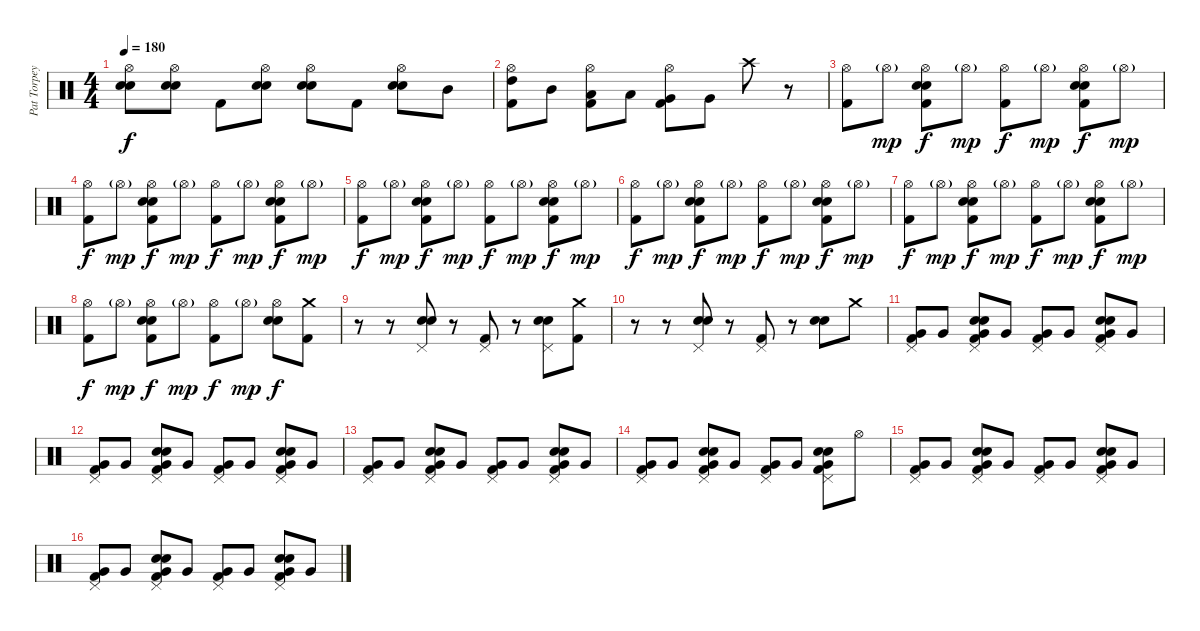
\track ("Pat Torpey" "Pat Torpey") {instrument percussion}
\staff {score}
\articulation defaults
\ts (4 4)
\tempo 180
\clef neutral
\ks c
("Snare (hit) 2" "Electric Snare (hit)" "Hi-Hat (open)").8{dy f} ("Snare (hit) 2" "Electric Snare (hit)" "Hi-Hat (open)").8 "Kick (hit) 2".8 ("Snare (hit) 2" "Electric Snare (hit)" "Hi-Hat (open)").8 ("Snare (hit) 2" "Electric Snare (hit)" "Hi-Hat (open)").8 "Kick (hit) 2".8 ("Snare (hit) 2" "Electric Snare (hit)" "Hi-Hat (open)").8 "Mid Tom (hit)".8 |
("High Tom (hit)" "Hi-Hat (open)" "Kick (hit) 2").8 "Mid Tom (hit)".8 ("Hi-Hat (open)" "Low Tom (hit)" "Kick (hit) 2").8 "Low Tom (hit)".8 ("Hi-Hat (open)" "Very Low Tom (hit)" "Kick (hit) 2").8 "Very Low Tom (hit)".8 "Crash high (hit)".8 r.8 |
("Hi-Hat (open)" "Kick (hit) 2").8 "Hi-Hat (open)"{g}.8{dy mp} ("Hi-Hat (open)" "Snare (hit) 2" "Electric Snare (hit)" "Kick (hit) 2").8{dy f} "Hi-Hat (open)"{g}.8{dy mp} ("Hi-Hat (open)" "Kick (hit) 2").8{dy f} "Hi-Hat (open)"{g}.8{dy mp} ("Hi-Hat (open)" "Snare (hit) 2" "Electric Snare (hit)" "Kick (hit) 2").8{dy f} "Hi-Hat (open)"{g}.8{dy mp} |
("Hi-Hat (open)" "Kick (hit) 2").8{dy f} "Hi-Hat (open)"{g}.8{dy mp} ("Hi-Hat (open)" "Snare (hit) 2" "Electric Snare (hit)" "Kick (hit) 2").8{dy f} "Hi-Hat (open)"{g}.8{dy mp} ("Hi-Hat (open)" "Kick (hit) 2").8{dy f} "Hi-Hat (open)"{g}.8{dy mp} ("Hi-Hat (open)" "Snare (hit) 2" "Electric Snare (hit)" "Kick (hit) 2").8{dy f} "Hi-Hat (open)"{g}.8{dy mp} |
("Hi-Hat (open)" "Kick (hit) 2").8{dy f} "Hi-Hat (open)"{g}.8{dy mp} ("Hi-Hat (open)" "Snare (hit) 2" "Electric Snare (hit)" "Kick (hit) 2").8{dy f} "Hi-Hat (open)"{g}.8{dy mp} ("Hi-Hat (open)" "Kick (hit) 2").8{dy f} "Hi-Hat (open)"{g}.8{dy mp} ("Hi-Hat (open)" "Snare (hit) 2" "Electric Snare (hit)" "Kick (hit) 2").8{dy f} "Hi-Hat (open)"{g}.8{dy mp} |
("Hi-Hat (open)" "Kick (hit) 2").8{dy f} "Hi-Hat (open)"{g}.8{dy mp} ("Hi-Hat (open)" "Snare (hit) 2" "Electric Snare (hit)" "Kick (hit) 2").8{dy f} "Hi-Hat (open)"{g}.8{dy mp} ("Hi-Hat (open)" "Kick (hit) 2").8{dy f} "Hi-Hat (open)"{g}.8{dy mp} ("Hi-Hat (open)" "Snare (hit) 2" "Electric Snare (hit)" "Kick (hit) 2").8{dy f} "Hi-Hat (open)"{g}.8{dy mp} |
("Hi-Hat (open)" "Kick (hit) 2").8{dy f} "Hi-Hat (open)"{g}.8{dy mp} ("Hi-Hat (open)" "Snare (hit) 2" "Electric Snare (hit)" "Kick (hit) 2").8{dy f} "Hi-Hat (open)"{g}.8{dy mp} ("Hi-Hat (open)" "Kick (hit) 2").8{dy f} "Hi-Hat (open)"{g}.8{dy mp} ("Hi-Hat (open)" "Snare (hit) 2" "Electric Snare (hit)" "Kick (hit) 2").8{dy f} "Hi-Hat (open)"{g}.8{dy mp} |
("Hi-Hat (open)" "Kick (hit) 2").8{dy f} "Hi-Hat (open)"{g}.8{dy mp} ("Hi-Hat (open)" "Snare (hit) 2" "Electric Snare (hit)" "Kick (hit) 2").8{dy f} "Hi-Hat (open)"{g}.8{dy mp} ("Hi-Hat (open)" "Kick (hit) 2").8{dy f} "Hi-Hat (open)"{g}.8{dy mp} ("Hi-Hat (open)" "Snare (hit) 2" "Electric Snare (hit)").8{dy f} ("Crash medium (hit)" "Kick (hit) 2").8 |
r.8 r.8 ("Pedal Hi-Hat (hit)" "Snare (hit) 2" "Electric Snare (hit)").8 r.8 ("Pedal Hi-Hat (hit)" "Kick (hit) 2").8 r.8 ("Pedal Hi-Hat (hit)" "Snare (hit) 2" "Electric Snare (hit)").8 ("Crash medium (hit)" "Kick (hit) 2").8 |
r.8 r.8 ("Pedal Hi-Hat (hit)" "Snare (hit) 2" "Electric Snare (hit)").8 r.8 ("Pedal Hi-Hat (hit)" "Kick (hit) 2").8 r.8 ("Snare (hit) 2" "Electric Snare (hit)").8 "Crash medium (hit)".8 |
("Pedal Hi-Hat (hit)" "Very Low Tom (hit)" "Kick (hit) 2").8 "Very Low Tom (hit)".8 ("Pedal Hi-Hat (hit)" "Very Low Tom (hit)" "Snare (hit) 2" "Electric Snare (hit)" "Kick (hit) 2").8 "Very Low Tom (hit)".8 ("Pedal Hi-Hat (hit)" "Very Low Tom (hit)" "Kick (hit) 2").8 "Very Low Tom (hit)".8 ("Pedal Hi-Hat (hit)" "Very Low Tom (hit)" "Snare (hit) 2" "Electric Snare (hit)" "Kick (hit) 2").8 "Very Low Tom (hit)".8 |
("Pedal Hi-Hat (hit)" "Very Low Tom (hit)" "Kick (hit) 2").8 "Very Low Tom (hit)".8 ("Pedal Hi-Hat (hit)" "Very Low Tom (hit)" "Snare (hit) 2" "Electric Snare (hit)" "Kick (hit) 2").8 "Very Low Tom (hit)".8 ("Pedal Hi-Hat (hit)" "Very Low Tom (hit)" "Kick (hit) 2").8 "Very Low Tom (hit)".8 ("Pedal Hi-Hat (hit)" "Very Low Tom (hit)" "Snare (hit) 2" "Electric Snare (hit)" "Kick (hit) 2").8 "Very Low Tom (hit)".8 |
("Pedal Hi-Hat (hit)" "Very Low Tom (hit)" "Kick (hit) 2").8 "Very Low Tom (hit)".8 ("Pedal Hi-Hat (hit)" "Very Low Tom (hit)" "Snare (hit) 2" "Electric Snare (hit)" "Kick (hit) 2").8 "Very Low Tom (hit)".8 ("Pedal Hi-Hat (hit)" "Very Low Tom (hit)" "Kick (hit) 2").8 "Very Low Tom (hit)".8 ("Pedal Hi-Hat (hit)" "Very Low Tom (hit)" "Snare (hit) 2" "Electric Snare (hit)" "Kick (hit) 2").8 "Very Low Tom (hit)".8 |
("Pedal Hi-Hat (hit)" "Very Low Tom (hit)" "Kick (hit) 2").8 "Very Low Tom (hit)".8 ("Pedal Hi-Hat (hit)" "Very Low Tom (hit)" "Snare (hit) 2" "Electric Snare (hit)" "Kick (hit) 2").8 "Very Low Tom (hit)".8 ("Pedal Hi-Hat (hit)" "Very Low Tom (hit)" "Kick (hit) 2").8 "Very Low Tom (hit)".8 ("Pedal Hi-Hat (hit)" "Very Low Tom (hit)" "Snare (hit) 2" "Electric Snare (hit)" "Kick (hit) 2").8 "Hi-Hat (open)".8 |
("Pedal Hi-Hat (hit)" "Very Low Tom (hit)" "Kick (hit) 2").8 "Very Low Tom (hit)".8 ("Pedal Hi-Hat (hit)" "Very Low Tom (hit)" "Snare (hit) 2" "Electric Snare (hit)" "Kick (hit) 2").8 "Very Low Tom (hit)".8 ("Pedal Hi-Hat (hit)" "Very Low Tom (hit)" "Kick (hit) 2").8 "Very Low Tom (hit)".8 ("Pedal Hi-Hat (hit)" "Very Low Tom (hit)" "Snare (hit) 2" "Electric Snare (hit)" "Kick (hit) 2").8 "Very Low Tom (hit)".8 |
("Pedal Hi-Hat (hit)" "Very Low Tom (hit)" "Kick (hit) 2").8 "Very Low Tom (hit)".8 ("Pedal Hi-Hat (hit)" "Very Low Tom (hit)" "Snare (hit) 2" "Electric Snare (hit)" "Kick (hit) 2").8 "Very Low Tom (hit)".8 ("Pedal Hi-Hat (hit)" "Very Low Tom (hit)" "Kick (hit) 2").8 "Very Low Tom (hit)".8 ("Pedal Hi-Hat (hit)" "Very Low Tom (hit)" "Snare (hit) 2" "Electric Snare (hit)" "Kick (hit) 2").8 "Very Low Tom (hit)".8
